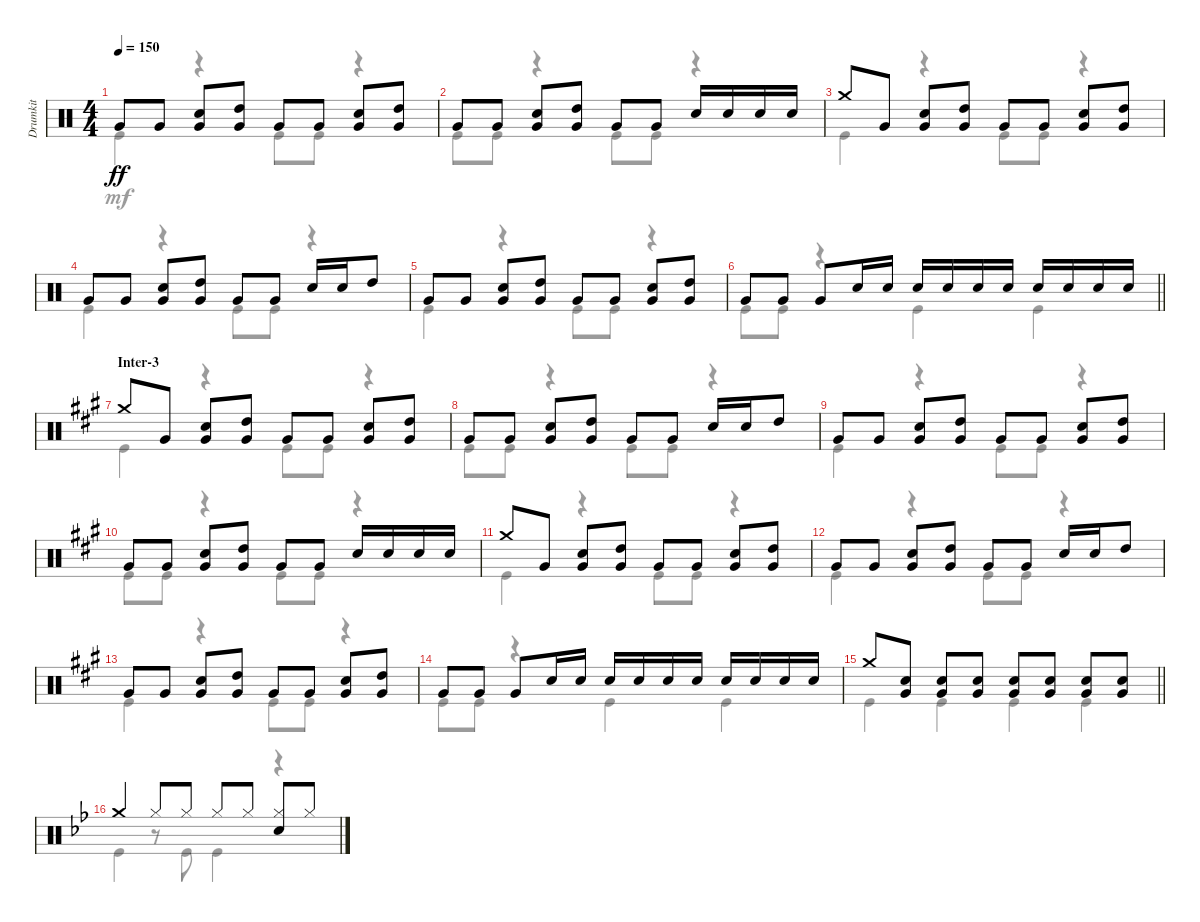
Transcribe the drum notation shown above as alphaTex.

\track ("Drumkit" "Drumkit") {instrument percussion}
\staff {score}
\articulation defaults
\voice
\ts (4 4)
\tempo 150
\clef neutral
\ks c "Very Low Tom (hit)".8{dy ff} "Very Low Tom (hit)".8
("Very Low Tom (hit)" "Snare (hit) 2").8 ("Very Low Tom (hit)" "High Tom (hit)").8 "Very Low Tom (hit)".8 "Very Low Tom (hit)".8 ("Very Low Tom (hit)" "Snare (hit) 2").8 ("Very Low Tom (hit)" "High Tom (hit)").8 |
"Very Low Tom (hit)".8 "Very Low Tom (hit)".8 ("Very Low Tom (hit)" "Snare (hit) 2").8 ("Very Low Tom (hit)" "High Tom (hit)").8 "Very Low Tom (hit)".8 "Very Low Tom (hit)".8 "Snare (hit) 2".16 "Snare (hit) 2".16 "Snare (hit) 2".16 "Snare (hit) 2".16 |
"Crash medium (hit)".8 "Very Low Tom (hit)".8 ("Very Low Tom (hit)" "Snare (hit) 2").8 ("Very Low Tom (hit)" "High Tom (hit)").8 "Very Low Tom (hit)".8 "Very Low Tom (hit)".8 ("Very Low Tom (hit)" "Snare (hit) 2").8 ("Very Low Tom (hit)" "High Tom (hit)").8 |
"Very Low Tom (hit)".8 "Very Low Tom (hit)".8 ("Very Low Tom (hit)" "Snare (hit) 2").8 ("Very Low Tom (hit)" "High Tom (hit)").8 "Very Low Tom (hit)".8 "Very Low Tom (hit)".8 "Snare (hit) 2".16 "Snare (hit) 2".16 "High Tom (hit)".8 |
"Very Low Tom (hit)".8 "Very Low Tom (hit)".8 ("Very Low Tom (hit)" "Snare (hit) 2").8 ("Very Low Tom (hit)" "High Tom (hit)").8 "Very Low Tom (hit)".8 "Very Low Tom (hit)".8 ("Very Low Tom (hit)" "Snare (hit) 2").8 ("Very Low Tom (hit)" "High Tom (hit)").8 |
\barLineRight lightlight "Very Low Tom (hit)".8 "Very Low Tom (hit)".8 "Very Low Tom (hit)".8 "Snare (hit) 2".16 "Snare (hit) 2".16 "Snare (hit) 2".16 "Snare (hit) 2".16 "Snare (hit) 2".16 "Snare (hit) 2".16 "Snare (hit) 2".16 "Snare (hit) 2".16 "Snare (hit) 2".16 "Snare (hit) 2".16
|
\section ("" "Inter-3")
\ks a "Crash medium (hit)".8 "Very Low Tom (hit)".8
("Very Low Tom (hit)" "Snare (hit) 2").8 ("Very Low Tom (hit)" "High Tom (hit)").8 "Very Low Tom (hit)".8 "Very Low Tom (hit)".8 ("Very Low Tom (hit)" "Snare (hit) 2").8 ("Very Low Tom (hit)" "High Tom (hit)").8 |
"Very Low Tom (hit)".8 "Very Low Tom (hit)".8 ("Very Low Tom (hit)" "Snare (hit) 2").8 ("Very Low Tom (hit)" "High Tom (hit)").8 "Very Low Tom (hit)".8 "Very Low Tom (hit)".8 "Snare (hit) 2".16 "Snare (hit) 2".16 "High Tom (hit)".8 |
"Very Low Tom (hit)".8 "Very Low Tom (hit)".8 ("Very Low Tom (hit)" "Snare (hit) 2").8 ("Very Low Tom (hit)" "High Tom (hit)").8 "Very Low Tom (hit)".8 "Very Low Tom (hit)".8 ("Very Low Tom (hit)" "Snare (hit) 2").8 ("Very Low Tom (hit)" "High Tom (hit)").8 |
"Very Low Tom (hit)".8 "Very Low Tom (hit)".8 ("Very Low Tom (hit)" "Snare (hit) 2").8 ("Very Low Tom (hit)" "High Tom (hit)").8 "Very Low Tom (hit)".8 "Very Low Tom (hit)".8 "Snare (hit) 2".16 "Snare (hit) 2".16 "Snare (hit) 2".16 "Snare (hit) 2".16 |
"Crash medium (hit)".8 "Very Low Tom (hit)".8 ("Very Low Tom (hit)" "Snare (hit) 2").8 ("Very Low Tom (hit)" "High Tom (hit)").8 "Very Low Tom (hit)".8 "Very Low Tom (hit)".8 ("Very Low Tom (hit)" "Snare (hit) 2").8 ("Very Low Tom (hit)" "High Tom (hit)").8 |
"Very Low Tom (hit)".8 "Very Low Tom (hit)".8 ("Very Low Tom (hit)" "Snare (hit) 2").8 ("Very Low Tom (hit)" "High Tom (hit)").8 "Very Low Tom (hit)".8 "Very Low Tom (hit)".8 "Snare (hit) 2".16 "Snare (hit) 2".16 "High Tom (hit)".8 |
"Very Low Tom (hit)".8 "Very Low Tom (hit)".8 ("Very Low Tom (hit)" "Snare (hit) 2").8 ("Very Low Tom (hit)" "High Tom (hit)").8 "Very Low Tom (hit)".8 "Very Low Tom (hit)".8 ("Very Low Tom (hit)" "Snare (hit) 2").8 ("Very Low Tom (hit)" "High Tom (hit)").8 |
"Very Low Tom (hit)".8 "Very Low Tom (hit)".8 "Very Low Tom (hit)".8 "Snare (hit) 2".16 "Snare (hit) 2".16 "Snare (hit) 2".16 "Snare (hit) 2".16 "Snare (hit) 2".16 "Snare (hit) 2".16 "Snare (hit) 2".16 "Snare (hit) 2".16 "Snare (hit) 2".16 "Snare (hit) 2".16 |
\barLineRight lightlight "Crash medium (hit)".8
("Snare (hit) 2" "Very Low Tom (hit)").8 ("Snare (hit) 2" "Very Low Tom (hit)").8 ("Snare (hit) 2" "Very Low Tom (hit)").8 ("Snare (hit) 2" "Very Low Tom (hit)").8 ("Snare (hit) 2" "Very Low Tom (hit)").8 ("Snare (hit) 2" "Very Low Tom (hit)").8 ("Snare (hit) 2" "Very Low Tom (hit)").8 |
\section ("" "")
\ks bb "Crash medium (hit)".4 "Hi-Hat (closed)".8 "Hi-Hat (closed)".8 "Hi-Hat (closed)".8 "Hi-Hat (closed)".8
("Hi-Hat (closed)" "Snare (hit) 2").8 "Hi-Hat (closed)".8
\voice
\clef neutral
\ottava regular
\simile none
\ks c "Kick (hit)".4{dy mf}
r.4 "Kick (hit)".8 "Kick (hit)".8 r.4 |
"Kick (hit)".8 "Kick (hit)".8 r.4 "Kick (hit)".8 "Kick (hit)".8 r.4 |
"Kick (hit)".4 r.4 "Kick (hit)".8 "Kick (hit)".8 r.4 |
"Kick (hit)".4 r.4 "Kick (hit)".8 "Kick (hit)".8 r.4 |
"Kick (hit)".4 r.4 "Kick (hit)".8 "Kick (hit)".8 r.4 |
\barLineRight lightlight "Kick (hit)".8 "Kick (hit)".8
r.4 "Kick (hit)".4 "Kick (hit)".4 |
\ks a "Kick (hit)".4
r.4 "Kick (hit)".8 "Kick (hit)".8 r.4 |
"Kick (hit)".8 "Kick (hit)".8 r.4 "Kick (hit)".8 "Kick (hit)".8 r.4 |
"Kick (hit)".4 r.4 "Kick (hit)".8 "Kick (hit)".8 r.4 |
"Kick (hit)".8 "Kick (hit)".8 r.4 "Kick (hit)".8 "Kick (hit)".8 r.4 |
"Kick (hit)".4 r.4 "Kick (hit)".8 "Kick (hit)".8 r.4 |
"Kick (hit)".4 r.4 "Kick (hit)".8 "Kick (hit)".8 r.4 |
"Kick (hit)".4 r.4 "Kick (hit)".8 "Kick (hit)".8 r.4 |
"Kick (hit)".8 "Kick (hit)".8 r.4 "Kick (hit)".4 "Kick (hit)".4 |
\barLineRight lightlight "Kick (hit)".4 "Kick (hit)".4 "Kick (hit)".4 "Kick (hit)".4
|
\ks bb "Kick (hit)".4
r.8 "Kick (hit)".8 "Kick (hit)".4 r.4
